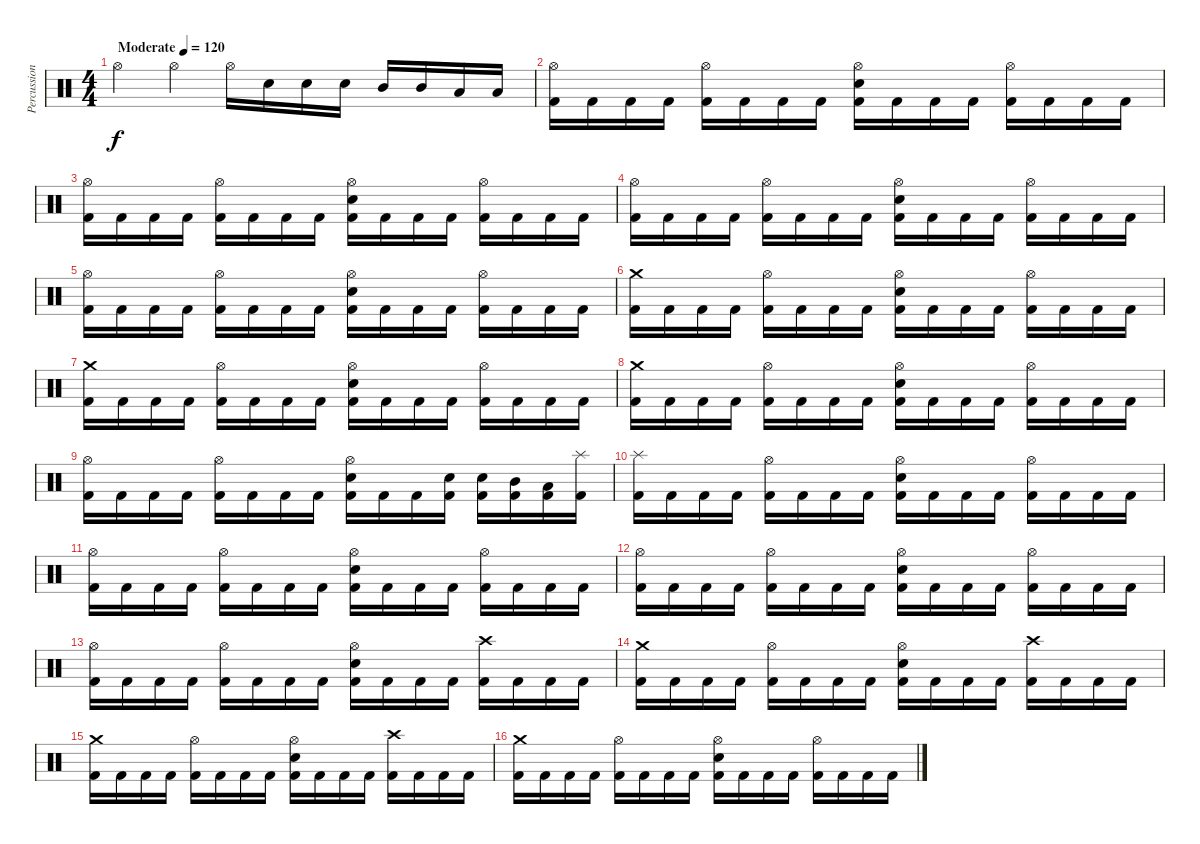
\track ("Percussion" "Percussion") {instrument percussion}
\staff {score}
\articulation defaults
\ts (4 4)
\tempo (120 "Moderate")
\clef neutral
\ks c "Hi-Hat (open)".4{dy f} "Hi-Hat (open)".4 "Hi-Hat (open)".16 "Electric Snare (hit)".16 "Electric Snare (hit)".16 "Electric Snare (hit)".16 "Mid Tom (hit)".16 "Mid Tom (hit)".16 "Low Tom (hit)".16 "Low Tom (hit)".16
|
("Hi-Hat (open)" "Kick (hit) 2").16 "Kick (hit) 2".16 "Kick (hit) 2".16 "Kick (hit) 2".16 ("Hi-Hat (open)" "Kick (hit) 2").16 "Kick (hit) 2".16 "Kick (hit) 2".16 "Kick (hit) 2".16 ("Electric Snare (hit)" "Hi-Hat (open)" "Kick (hit) 2").16 "Kick (hit) 2".16 "Kick (hit) 2".16 "Kick (hit) 2".16 ("Hi-Hat (open)" "Kick (hit) 2").16 "Kick (hit) 2".16 "Kick (hit) 2".16 "Kick (hit) 2".16 |
("Hi-Hat (open)" "Kick (hit) 2").16 "Kick (hit) 2".16 "Kick (hit) 2".16 "Kick (hit) 2".16 ("Hi-Hat (open)" "Kick (hit) 2").16 "Kick (hit) 2".16 "Kick (hit) 2".16 "Kick (hit) 2".16 ("Electric Snare (hit)" "Hi-Hat (open)" "Kick (hit) 2").16 "Kick (hit) 2".16 "Kick (hit) 2".16 "Kick (hit) 2".16 ("Hi-Hat (open)" "Kick (hit) 2").16 "Kick (hit) 2".16 "Kick (hit) 2".16 "Kick (hit) 2".16 |
("Hi-Hat (open)" "Kick (hit) 2").16 "Kick (hit) 2".16 "Kick (hit) 2".16 "Kick (hit) 2".16 ("Hi-Hat (open)" "Kick (hit) 2").16 "Kick (hit) 2".16 "Kick (hit) 2".16 "Kick (hit) 2".16 ("Electric Snare (hit)" "Hi-Hat (open)" "Kick (hit) 2").16 "Kick (hit) 2".16 "Kick (hit) 2".16 "Kick (hit) 2".16 ("Hi-Hat (open)" "Kick (hit) 2").16 "Kick (hit) 2".16 "Kick (hit) 2".16 "Kick (hit) 2".16 |
("Hi-Hat (open)" "Kick (hit) 2").16 "Kick (hit) 2".16 "Kick (hit) 2".16 "Kick (hit) 2".16 ("Hi-Hat (open)" "Kick (hit) 2").16 "Kick (hit) 2".16 "Kick (hit) 2".16 "Kick (hit) 2".16 ("Electric Snare (hit)" "Hi-Hat (open)" "Kick (hit) 2").16 "Kick (hit) 2".16 "Kick (hit) 2".16 "Kick (hit) 2".16 ("Hi-Hat (open)" "Kick (hit) 2").16 "Kick (hit) 2".16 "Kick (hit) 2".16 "Kick (hit) 2".16 |
("Crash medium (hit)" "Kick (hit) 2").16 "Kick (hit) 2".16 "Kick (hit) 2".16 "Kick (hit) 2".16 ("Hi-Hat (open)" "Kick (hit) 2").16 "Kick (hit) 2".16 "Kick (hit) 2".16 "Kick (hit) 2".16 ("Hi-Hat (open)" "Electric Snare (hit)" "Kick (hit) 2").16 "Kick (hit) 2".16 "Kick (hit) 2".16 "Kick (hit) 2".16 ("Hi-Hat (open)" "Kick (hit) 2").16 "Kick (hit) 2".16 "Kick (hit) 2".16 "Kick (hit) 2".16 |
("Crash medium (hit)" "Kick (hit) 2").16 "Kick (hit) 2".16 "Kick (hit) 2".16 "Kick (hit) 2".16 ("Hi-Hat (open)" "Kick (hit) 2").16 "Kick (hit) 2".16 "Kick (hit) 2".16 "Kick (hit) 2".16 ("Hi-Hat (open)" "Electric Snare (hit)" "Kick (hit) 2").16 "Kick (hit) 2".16 "Kick (hit) 2".16 "Kick (hit) 2".16 ("Hi-Hat (open)" "Kick (hit) 2").16 "Kick (hit) 2".16 "Kick (hit) 2".16 "Kick (hit) 2".16 |
("Crash medium (hit)" "Kick (hit) 2").16 "Kick (hit) 2".16 "Kick (hit) 2".16 "Kick (hit) 2".16 ("Hi-Hat (open)" "Kick (hit) 2").16 "Kick (hit) 2".16 "Kick (hit) 2".16 "Kick (hit) 2".16 ("Hi-Hat (open)" "Electric Snare (hit)" "Kick (hit) 2").16 "Kick (hit) 2".16 "Kick (hit) 2".16 "Kick (hit) 2".16 ("Hi-Hat (open)" "Kick (hit) 2").16 "Kick (hit) 2".16 "Kick (hit) 2".16 "Kick (hit) 2".16 |
("Hi-Hat (open)" "Kick (hit) 2").16 "Kick (hit) 2".16 "Kick (hit) 2".16 "Kick (hit) 2".16 ("Hi-Hat (open)" "Kick (hit) 2").16 "Kick (hit) 2".16 "Kick (hit) 2".16 "Kick (hit) 2".16 ("Hi-Hat (open)" "Electric Snare (hit)" "Kick (hit) 2").16 "Kick (hit) 2".16 "Kick (hit) 2".16 ("Electric Snare (hit)" "Kick (hit) 2").16 ("Electric Snare (hit)" "Kick (hit) 2").16 ("Mid Tom (hit)" "Kick (hit) 2").16 ("Low Tom (hit)" "Kick (hit) 2").16 ("Splash (hit)" "Kick (hit) 2").16 |
("Splash (hit)" "Kick (hit) 2").16 "Kick (hit) 2".16 "Kick (hit) 2".16 "Kick (hit) 2".16 ("Hi-Hat (open)" "Kick (hit) 2").16 "Kick (hit) 2".16 "Kick (hit) 2".16 "Kick (hit) 2".16 ("Hi-Hat (open)" "Electric Snare (hit)" "Kick (hit) 2").16 "Kick (hit) 2".16 "Kick (hit) 2".16 "Kick (hit) 2".16 ("Hi-Hat (open)" "Kick (hit) 2").16 "Kick (hit) 2".16 "Kick (hit) 2".16 "Kick (hit) 2".16 |
("Hi-Hat (open)" "Kick (hit) 2").16 "Kick (hit) 2".16 "Kick (hit) 2".16 "Kick (hit) 2".16 ("Hi-Hat (open)" "Kick (hit) 2").16 "Kick (hit) 2".16 "Kick (hit) 2".16 "Kick (hit) 2".16 ("Hi-Hat (open)" "Electric Snare (hit)" "Kick (hit) 2").16 "Kick (hit) 2".16 "Kick (hit) 2".16 "Kick (hit) 2".16 ("Hi-Hat (open)" "Kick (hit) 2").16 "Kick (hit) 2".16 "Kick (hit) 2".16 "Kick (hit) 2".16 |
("Hi-Hat (open)" "Kick (hit) 2").16 "Kick (hit) 2".16 "Kick (hit) 2".16 "Kick (hit) 2".16 ("Hi-Hat (open)" "Kick (hit) 2").16 "Kick (hit) 2".16 "Kick (hit) 2".16 "Kick (hit) 2".16 ("Hi-Hat (open)" "Electric Snare (hit)" "Kick (hit) 2").16 "Kick (hit) 2".16 "Kick (hit) 2".16 "Kick (hit) 2".16 ("Hi-Hat (open)" "Kick (hit) 2").16 "Kick (hit) 2".16 "Kick (hit) 2".16 "Kick (hit) 2".16 |
("Hi-Hat (open)" "Kick (hit) 2").16 "Kick (hit) 2".16 "Kick (hit) 2".16 "Kick (hit) 2".16 ("Hi-Hat (open)" "Kick (hit) 2").16 "Kick (hit) 2".16 "Kick (hit) 2".16 "Kick (hit) 2".16 ("Hi-Hat (open)" "Electric Snare (hit)" "Kick (hit) 2").16 "Kick (hit) 2".16 "Kick (hit) 2".16 "Kick (hit) 2".16 ("Crash high (hit)" "Kick (hit) 2").16 "Kick (hit) 2".16 "Kick (hit) 2".16 "Kick (hit) 2".16 |
("Crash medium (hit)" "Kick (hit) 2").16 "Kick (hit) 2".16 "Kick (hit) 2".16 "Kick (hit) 2".16 ("Hi-Hat (open)" "Kick (hit) 2").16 "Kick (hit) 2".16 "Kick (hit) 2".16 "Kick (hit) 2".16 ("Hi-Hat (open)" "Electric Snare (hit)" "Kick (hit) 2").16 "Kick (hit) 2".16 "Kick (hit) 2".16 "Kick (hit) 2".16 ("Crash high (hit)" "Kick (hit) 2").16 "Kick (hit) 2".16 "Kick (hit) 2".16 "Kick (hit) 2".16 |
("Crash medium (hit)" "Kick (hit) 2").16 "Kick (hit) 2".16 "Kick (hit) 2".16 "Kick (hit) 2".16 ("Hi-Hat (open)" "Kick (hit) 2").16 "Kick (hit) 2".16 "Kick (hit) 2".16 "Kick (hit) 2".16 ("Hi-Hat (open)" "Electric Snare (hit)" "Kick (hit) 2").16 "Kick (hit) 2".16 "Kick (hit) 2".16 "Kick (hit) 2".16 ("Crash high (hit)" "Kick (hit) 2").16 "Kick (hit) 2".16 "Kick (hit) 2".16 "Kick (hit) 2".16 |
("Crash medium (hit)" "Kick (hit) 2").16 "Kick (hit) 2".16 "Kick (hit) 2".16 "Kick (hit) 2".16 ("Hi-Hat (open)" "Kick (hit) 2").16 "Kick (hit) 2".16 "Kick (hit) 2".16 "Kick (hit) 2".16 ("Hi-Hat (open)" "Electric Snare (hit)" "Kick (hit) 2").16 "Kick (hit) 2".16 "Kick (hit) 2".16 "Kick (hit) 2".16 ("Hi-Hat (open)" "Kick (hit) 2").16 "Kick (hit) 2".16 "Kick (hit) 2".16 "Kick (hit) 2".16
